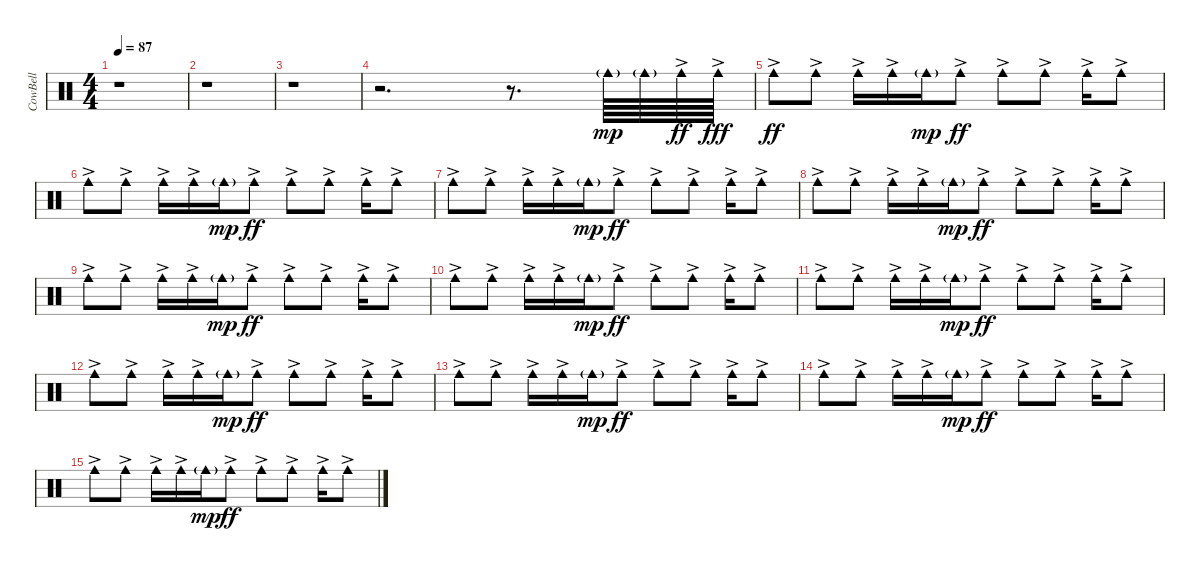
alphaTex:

\track ("CowBell" "CowBell") {instrument percussion}
\staff {score}
\articulation defaults
\ts (4 4)
\tempo 87
\clef neutral
\ks c
r.1{dy mp} |
r.1 |
r.1 |
r.2{d} r.8{d} "Cowbell medium (hit)"{g}.64 "Cowbell medium (hit)"{g}.64 "Cowbell medium (hit)"{ac}.64{dy ff} "Cowbell medium (hit)"{ac}.64{dy fff} |
"Cowbell medium (hit)"{ac}.8{dy ff} "Cowbell medium (hit)"{ac}.8 "Cowbell medium (hit)"{ac}.16 "Cowbell medium (hit)"{ac}.16 "Cowbell medium (hit)"{g}.16{dy mp} "Cowbell medium (hit)"{ac}.8{dy ff} "Cowbell medium (hit)"{ac}.8 "Cowbell medium (hit)"{ac}.8 "Cowbell medium (hit)"{ac}.16 "Cowbell medium (hit)"{ac}.8 |
"Cowbell medium (hit)"{ac}.8 "Cowbell medium (hit)"{ac}.8 "Cowbell medium (hit)"{ac}.16 "Cowbell medium (hit)"{ac}.16 "Cowbell medium (hit)"{g}.16{dy mp} "Cowbell medium (hit)"{ac}.8{dy ff} "Cowbell medium (hit)"{ac}.8 "Cowbell medium (hit)"{ac}.8 "Cowbell medium (hit)"{ac}.16 "Cowbell medium (hit)"{ac}.8 |
"Cowbell medium (hit)"{ac}.8 "Cowbell medium (hit)"{ac}.8 "Cowbell medium (hit)"{ac}.16 "Cowbell medium (hit)"{ac}.16 "Cowbell medium (hit)"{g}.16{dy mp} "Cowbell medium (hit)"{ac}.8{dy ff} "Cowbell medium (hit)"{ac}.8 "Cowbell medium (hit)"{ac}.8 "Cowbell medium (hit)"{ac}.16 "Cowbell medium (hit)"{ac}.8 |
"Cowbell medium (hit)"{ac}.8 "Cowbell medium (hit)"{ac}.8 "Cowbell medium (hit)"{ac}.16 "Cowbell medium (hit)"{ac}.16 "Cowbell medium (hit)"{g}.16{dy mp} "Cowbell medium (hit)"{ac}.8{dy ff} "Cowbell medium (hit)"{ac}.8 "Cowbell medium (hit)"{ac}.8 "Cowbell medium (hit)"{ac}.16 "Cowbell medium (hit)"{ac}.8 |
"Cowbell medium (hit)"{ac}.8 "Cowbell medium (hit)"{ac}.8 "Cowbell medium (hit)"{ac}.16 "Cowbell medium (hit)"{ac}.16 "Cowbell medium (hit)"{g}.16{dy mp} "Cowbell medium (hit)"{ac}.8{dy ff} "Cowbell medium (hit)"{ac}.8 "Cowbell medium (hit)"{ac}.8 "Cowbell medium (hit)"{ac}.16 "Cowbell medium (hit)"{ac}.8 |
"Cowbell medium (hit)"{ac}.8 "Cowbell medium (hit)"{ac}.8 "Cowbell medium (hit)"{ac}.16 "Cowbell medium (hit)"{ac}.16 "Cowbell medium (hit)"{g}.16{dy mp} "Cowbell medium (hit)"{ac}.8{dy ff} "Cowbell medium (hit)"{ac}.8 "Cowbell medium (hit)"{ac}.8 "Cowbell medium (hit)"{ac}.16 "Cowbell medium (hit)"{ac}.8 |
"Cowbell medium (hit)"{ac}.8 "Cowbell medium (hit)"{ac}.8 "Cowbell medium (hit)"{ac}.16 "Cowbell medium (hit)"{ac}.16 "Cowbell medium (hit)"{g}.16{dy mp} "Cowbell medium (hit)"{ac}.8{dy ff} "Cowbell medium (hit)"{ac}.8 "Cowbell medium (hit)"{ac}.8 "Cowbell medium (hit)"{ac}.16 "Cowbell medium (hit)"{ac}.8 |
"Cowbell medium (hit)"{ac}.8 "Cowbell medium (hit)"{ac}.8 "Cowbell medium (hit)"{ac}.16 "Cowbell medium (hit)"{ac}.16 "Cowbell medium (hit)"{g}.16{dy mp} "Cowbell medium (hit)"{ac}.8{dy ff} "Cowbell medium (hit)"{ac}.8 "Cowbell medium (hit)"{ac}.8 "Cowbell medium (hit)"{ac}.16 "Cowbell medium (hit)"{ac}.8 |
"Cowbell medium (hit)"{ac}.8 "Cowbell medium (hit)"{ac}.8 "Cowbell medium (hit)"{ac}.16 "Cowbell medium (hit)"{ac}.16 "Cowbell medium (hit)"{g}.16{dy mp} "Cowbell medium (hit)"{ac}.8{dy ff} "Cowbell medium (hit)"{ac}.8 "Cowbell medium (hit)"{ac}.8 "Cowbell medium (hit)"{ac}.16 "Cowbell medium (hit)"{ac}.8 |
"Cowbell medium (hit)"{ac}.8 "Cowbell medium (hit)"{ac}.8 "Cowbell medium (hit)"{ac}.16 "Cowbell medium (hit)"{ac}.16 "Cowbell medium (hit)"{g}.16{dy mp} "Cowbell medium (hit)"{ac}.8{dy ff} "Cowbell medium (hit)"{ac}.8 "Cowbell medium (hit)"{ac}.8 "Cowbell medium (hit)"{ac}.16 "Cowbell medium (hit)"{ac}.8 |
"Cowbell medium (hit)"{ac}.8 "Cowbell medium (hit)"{ac}.8 "Cowbell medium (hit)"{ac}.16 "Cowbell medium (hit)"{ac}.16 "Cowbell medium (hit)"{g}.16{dy mp} "Cowbell medium (hit)"{ac}.8{dy ff} "Cowbell medium (hit)"{ac}.8 "Cowbell medium (hit)"{ac}.8 "Cowbell medium (hit)"{ac}.16 "Cowbell medium (hit)"{ac}.8
